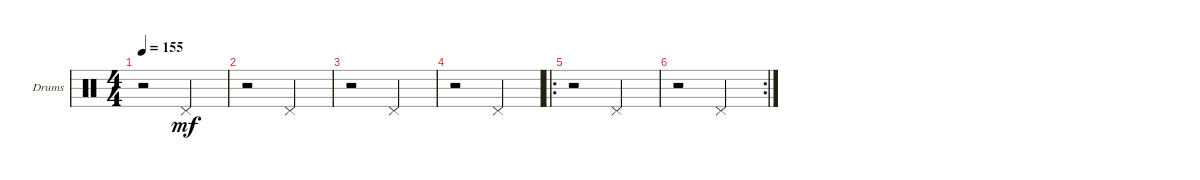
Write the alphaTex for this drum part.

\defaultSystemsLayout 4
\bracketExtendMode groupsimilarinstruments
\firstSystemTrackNameOrientation horizontal
\otherSystemsTrackNameOrientation horizontal
\track ("Drumkit" "Drums") {instrument percussion}
\staff {score}
\articulation defaults
\ts (4 4)
\tempo 155
\clef neutral
\ks c
r.2{dy mf} "Pedal Hi-Hat (hit)".2 |
r.2 "Pedal Hi-Hat (hit)".2 |
r.2 "Pedal Hi-Hat (hit)".2 |
r.2 "Pedal Hi-Hat (hit)".2 |
\ro
r.2 "Pedal Hi-Hat (hit)".2 |
\rc 2
r.2 "Pedal Hi-Hat (hit)".2
